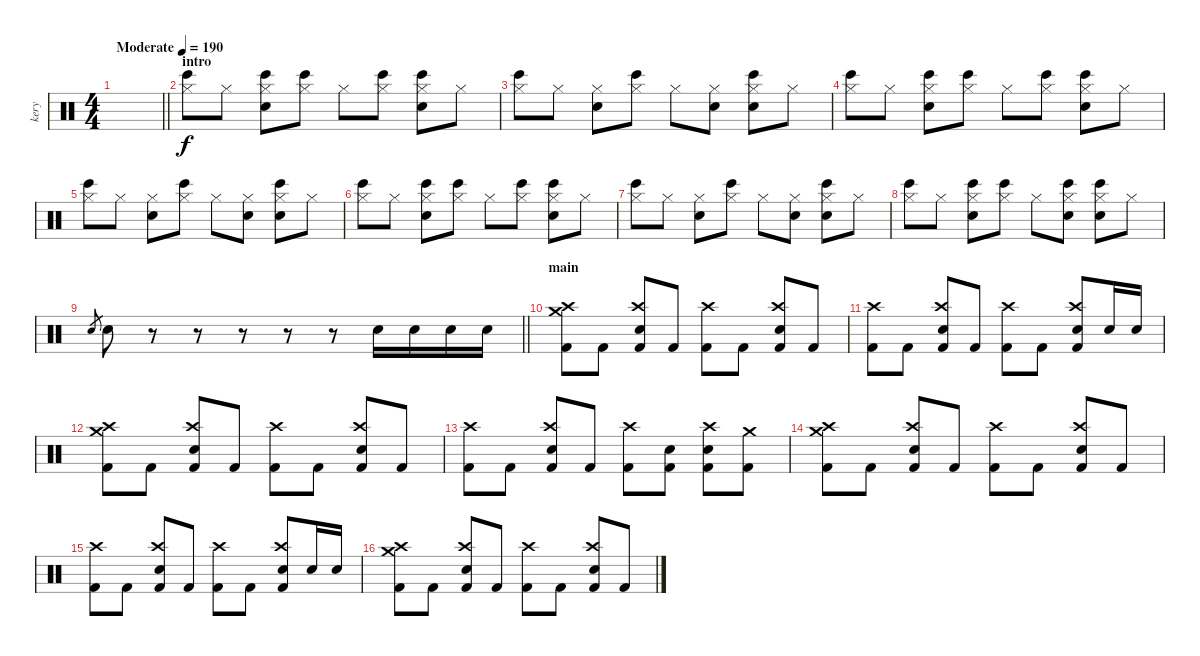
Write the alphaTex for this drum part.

\track ("kery" "kery") {instrument percussion}
\staff {score}
\articulation defaults
\ts (4 4)
\tempo (190 "Moderate")
\clef neutral
\barLineRight lightlight
\ks c
|
\section ("" "intro")
("Bongo High (hit)" "Hi-Hat (closed)").8 "Hi-Hat (closed)".8 ("Electric Snare (hit)" "Bongo High (hit)" "Hi-Hat (closed)").8 ("Bongo High (hit)" "Hi-Hat (closed)").8 "Hi-Hat (closed)".8 ("Bongo High (hit)" "Hi-Hat (closed)").8 ("Electric Snare (hit)" "Bongo High (hit)" "Hi-Hat (closed)").8 "Hi-Hat (closed)".8 |
("Bongo High (hit)" "Hi-Hat (closed)").8 "Hi-Hat (closed)".8 ("Electric Snare (hit)" "Hi-Hat (closed)").8 ("Bongo High (hit)" "Hi-Hat (closed)").8 "Hi-Hat (closed)".8 ("Electric Snare (hit)" "Hi-Hat (closed)").8 ("Electric Snare (hit)" "Bongo High (hit)" "Hi-Hat (closed)").8 "Hi-Hat (closed)".8 |
("Bongo High (hit)" "Hi-Hat (closed)").8 "Hi-Hat (closed)".8 ("Electric Snare (hit)" "Bongo High (hit)" "Hi-Hat (closed)").8 ("Bongo High (hit)" "Hi-Hat (closed)").8 "Hi-Hat (closed)".8 ("Bongo High (hit)" "Hi-Hat (closed)").8 ("Electric Snare (hit)" "Bongo High (hit)" "Hi-Hat (closed)").8 "Hi-Hat (closed)".8 |
("Bongo High (hit)" "Hi-Hat (closed)").8 "Hi-Hat (closed)".8 ("Electric Snare (hit)" "Hi-Hat (closed)").8 ("Bongo High (hit)" "Hi-Hat (closed)").8 "Hi-Hat (closed)".8 ("Electric Snare (hit)" "Hi-Hat (closed)").8 ("Electric Snare (hit)" "Bongo High (hit)" "Hi-Hat (closed)").8 "Hi-Hat (closed)".8 |
("Bongo High (hit)" "Hi-Hat (closed)").8 "Hi-Hat (closed)".8 ("Electric Snare (hit)" "Bongo High (hit)" "Hi-Hat (closed)").8 ("Bongo High (hit)" "Hi-Hat (closed)").8 "Hi-Hat (closed)".8 ("Bongo High (hit)" "Hi-Hat (closed)").8 ("Electric Snare (hit)" "Bongo High (hit)" "Hi-Hat (closed)").8 "Hi-Hat (closed)".8 |
("Bongo High (hit)" "Hi-Hat (closed)").8 "Hi-Hat (closed)".8 ("Electric Snare (hit)" "Hi-Hat (closed)").8 ("Bongo High (hit)" "Hi-Hat (closed)").8 "Hi-Hat (closed)".8 ("Electric Snare (hit)" "Hi-Hat (closed)").8 ("Electric Snare (hit)" "Bongo High (hit)" "Hi-Hat (closed)").8 "Hi-Hat (closed)".8 |
("Bongo High (hit)" "Hi-Hat (closed)").8 "Hi-Hat (closed)".8 ("Electric Snare (hit)" "Bongo High (hit)" "Hi-Hat (closed)").8 ("Bongo High (hit)" "Hi-Hat (closed)").8 "Hi-Hat (closed)".8 ("Electric Snare (hit)" "Bongo High (hit)" "Hi-Hat (closed)").8 ("Electric Snare (hit)" "Bongo High (hit)" "Hi-Hat (closed)").8 "Hi-Hat (closed)".8 |
\barLineRight lightlight "Electric Snare (hit)".8{gr} "Electric Snare (hit)".8
r.8 r.8 r.8 r.8 r.8 "Electric Snare (hit)".16 "Electric Snare (hit)".16 "Electric Snare (hit)".16 "Electric Snare (hit)".16 |
\section ("" "main ")
("Crash high (hit)" "Crash medium (hit)" "Kick (hit) 2").8 "Kick (hit) 2".8 ("Crash high (hit)" "Electric Snare (hit)" "Kick (hit) 2").8 "Kick (hit) 2".8 ("Crash high (hit)" "Kick (hit) 2").8 "Kick (hit) 2".8 ("Crash high (hit)" "Electric Snare (hit)" "Kick (hit) 2").8 "Kick (hit) 2".8 |
("Crash high (hit)" "Kick (hit) 2").8 "Kick (hit) 2".8 ("Crash high (hit)" "Electric Snare (hit)" "Kick (hit) 2").8 "Kick (hit) 2".8 ("Crash high (hit)" "Kick (hit) 2").8 "Kick (hit) 2".8 ("Crash high (hit)" "Electric Snare (hit)" "Kick (hit) 2").8 "Electric Snare (hit)".16 "Electric Snare (hit)".16 |
("Crash high (hit)" "Crash medium (hit)" "Kick (hit) 2").8 "Kick (hit) 2".8 ("Crash high (hit)" "Electric Snare (hit)" "Kick (hit) 2").8 "Kick (hit) 2".8 ("Crash high (hit)" "Kick (hit) 2").8 "Kick (hit) 2".8 ("Crash high (hit)" "Electric Snare (hit)" "Kick (hit) 2").8 "Kick (hit) 2".8 |
("Crash high (hit)" "Kick (hit) 2").8 "Kick (hit) 2".8 ("Crash high (hit)" "Electric Snare (hit)" "Kick (hit) 2").8 "Kick (hit) 2".8 ("Crash high (hit)" "Kick (hit) 2").8 ("Electric Snare (hit)" "Kick (hit) 2").8 ("Crash high (hit)" "Electric Snare (hit)" "Kick (hit) 2").8 ("Crash medium (hit)" "Kick (hit) 2").8 |
("Crash high (hit)" "Crash medium (hit)" "Kick (hit) 2").8 "Kick (hit) 2".8 ("Crash high (hit)" "Electric Snare (hit)" "Kick (hit) 2").8 "Kick (hit) 2".8 ("Crash high (hit)" "Kick (hit) 2").8 "Kick (hit) 2".8 ("Crash high (hit)" "Electric Snare (hit)" "Kick (hit) 2").8 "Kick (hit) 2".8 |
("Crash high (hit)" "Kick (hit) 2").8 "Kick (hit) 2".8 ("Crash high (hit)" "Electric Snare (hit)" "Kick (hit) 2").8 "Kick (hit) 2".8 ("Crash high (hit)" "Kick (hit) 2").8 "Kick (hit) 2".8 ("Crash high (hit)" "Electric Snare (hit)" "Kick (hit) 2").8 "Electric Snare (hit)".16 "Electric Snare (hit)".16 |
("Crash high (hit)" "Crash medium (hit)" "Kick (hit) 2").8 "Kick (hit) 2".8 ("Crash high (hit)" "Electric Snare (hit)" "Kick (hit) 2").8 "Kick (hit) 2".8 ("Crash high (hit)" "Kick (hit) 2").8 "Kick (hit) 2".8 ("Crash high (hit)" "Electric Snare (hit)" "Kick (hit) 2").8 "Kick (hit) 2".8
